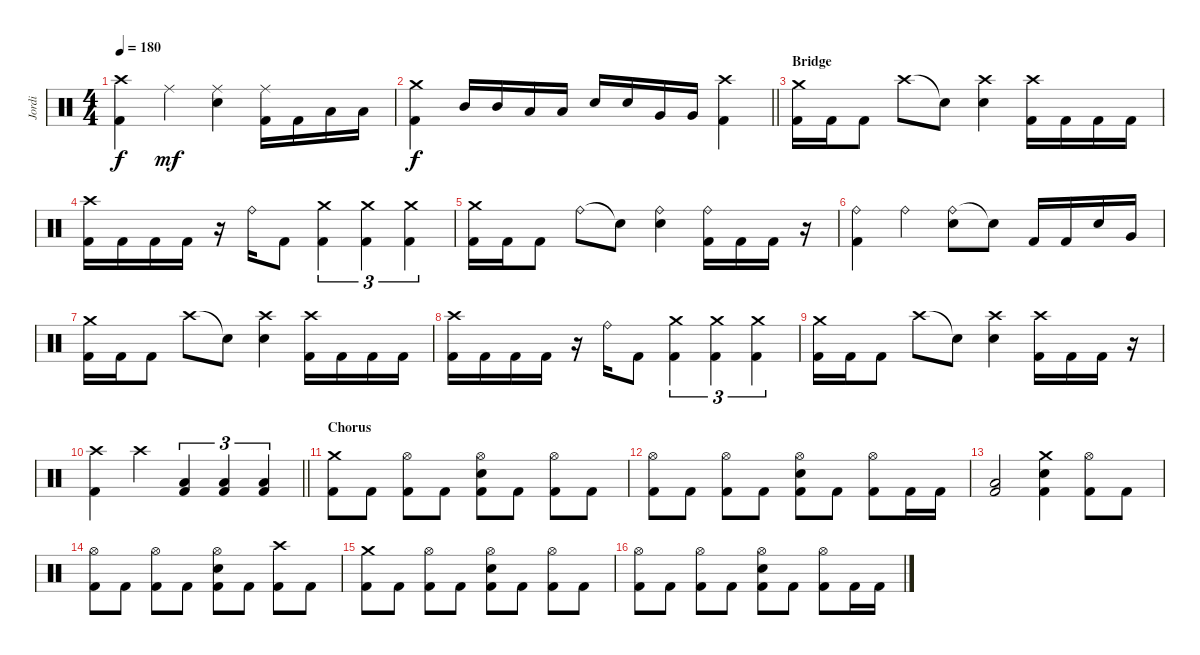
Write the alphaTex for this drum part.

\track ("Jordi" "Jordi") {instrument percussion}
\staff {score}
\articulation defaults
\ts (4 4)
\tempo 180
\clef neutral
\ks c
("Crash high (hit)" "Kick (hit) 2").4{dy f} "Ride (middle)".4{dy mf} ("Ride (middle)" "Snare (hit) 2").4 ("Ride (middle)" "Kick (hit) 2").16 "Kick (hit) 2".16 "Low Tom (hit)".16 "Low Tom (hit)".16 |
\barLineRight lightlight
("Crash medium (hit)" "Kick (hit) 2").4{dy f} "Mid Tom (hit)".16 "Mid Tom (hit)".16 "Low Tom (hit)".16 "Low Tom (hit)".16 "Snare (hit) 2".16 "Snare (hit) 2".16 "Very Low Tom (hit)".16 "Very Low Tom (hit)".16 ("Crash high (hit)" "Kick (hit) 2").4 |
\section ("" "Bridge")
("Crash medium (hit)" "Kick (hit) 2").16 "Kick (hit) 2".16 "Kick (hit) 2".8 "Crash high (hit)".8 "Snare (hit)"{t}.8 ("Crash high (hit)" "Snare (hit) 2").4 ("Crash high (hit)" "Kick (hit) 2").16 "Kick (hit) 2".16 "Kick (hit) 2".16 "Kick (hit) 2".16 |
("Crash high (hit)" "Kick (hit) 2").16 "Kick (hit) 2".16 "Kick (hit) 2".16 "Kick (hit) 2".16 r.16 "Ride (bell)".16 "Kick (hit) 2".8 ("Crash medium (hit)" "Kick (hit) 2").4{tu (3 2)} ("Crash medium (hit)" "Kick (hit) 2").4{tu (3 2)} ("Crash medium (hit)" "Kick (hit) 2").4{tu (3 2)} |
("Crash medium (hit)" "Kick (hit) 2").16 "Kick (hit) 2".16 "Kick (hit) 2".8 "Ride (bell)".8 "Snare (hit)"{t}.8 ("Ride (bell)" "Snare (hit) 2").4 ("Ride (bell)" "Kick (hit) 2").16 "Kick (hit) 2".16 "Kick (hit) 2".16 r.16 |
("Ride (bell)" "Kick (hit) 2").4 "Ride (bell)".4 ("Ride (bell)" "Snare (hit) 2").8 "Snare (hit)"{t}.8 "Kick (hit) 2".16 "Kick (hit) 2".16 "Snare (hit) 2".16 "Very Low Tom (hit)".16 |
("Crash medium (hit)" "Kick (hit) 2").16 "Kick (hit) 2".16 "Kick (hit) 2".8 "Crash high (hit)".8 "Snare (hit)"{t}.8 ("Crash high (hit)" "Snare (hit) 2").4 ("Crash high (hit)" "Kick (hit) 2").16 "Kick (hit) 2".16 "Kick (hit) 2".16 "Kick (hit) 2".16 |
("Crash high (hit)" "Kick (hit) 2").16 "Kick (hit) 2".16 "Kick (hit) 2".16 "Kick (hit) 2".16 r.16 "Ride (bell)".16 "Kick (hit) 2".8 ("Crash medium (hit)" "Kick (hit) 2").4{tu (3 2)} ("Crash medium (hit)" "Kick (hit) 2").4{tu (3 2)} ("Crash medium (hit)" "Kick (hit) 2").4{tu (3 2)} |
("Crash medium (hit)" "Kick (hit) 2").16 "Kick (hit) 2".16 "Kick (hit) 2".8 "Crash high (hit)".8 "Snare (hit)"{t}.8 ("Crash high (hit)" "Snare (hit) 2").4 ("Crash high (hit)" "Kick (hit) 2").16 "Kick (hit) 2".16 "Kick (hit) 2".16 r.16 |
\barLineRight lightlight
("Crash high (hit)" "Kick (hit) 2").4 "Crash high (hit)".4 ("Low Floor Tom (hit)" "Kick (hit) 2").4{tu (3 2)} ("Low Floor Tom (hit)" "Kick (hit) 2").4{tu (3 2)} ("Low Floor Tom (hit)" "Kick (hit) 2").4{tu (3 2)} |
\section ("" "Chorus")
("Crash medium (hit)" "Kick (hit) 2").8 "Kick (hit) 2".8 ("Hi-Hat (open)" "Kick (hit) 2").8 "Kick (hit) 2".8 ("Hi-Hat (open)" "Snare (hit) 2" "Kick (hit) 2").8 "Kick (hit) 2".8 ("Hi-Hat (open)" "Kick (hit) 2").8 "Kick (hit) 2".8 |
("Hi-Hat (open)" "Kick (hit) 2").8 "Kick (hit) 2".8 ("Hi-Hat (open)" "Kick (hit) 2").8 "Kick (hit) 2".8 ("Hi-Hat (open)" "Snare (hit) 2" "Kick (hit) 2").8 "Kick (hit) 2".8 ("Hi-Hat (open)" "Kick (hit) 2").8 "Kick (hit) 2".16 "Kick (hit) 2".16 |
("Low Tom (hit)" "Kick (hit) 2").2 ("Crash medium (hit)" "Snare (hit) 2" "Kick (hit) 2").4 ("Hi-Hat (open)" "Kick (hit) 2").8 "Kick (hit) 2".8 |
("Hi-Hat (open)" "Kick (hit) 2").8 "Kick (hit) 2".8 ("Hi-Hat (open)" "Kick (hit) 2").8 "Kick (hit) 2".8 ("Hi-Hat (open)" "Snare (hit) 2" "Kick (hit) 2").8 "Kick (hit) 2".8 ("Crash high (hit)" "Kick (hit) 2").8 "Kick (hit) 2".8 |
("Crash medium (hit)" "Kick (hit) 2").8 "Kick (hit) 2".8 ("Hi-Hat (open)" "Kick (hit) 2").8 "Kick (hit) 2".8 ("Hi-Hat (open)" "Snare (hit) 2" "Kick (hit) 2").8 "Kick (hit) 2".8 ("Hi-Hat (open)" "Kick (hit) 2").8 "Kick (hit) 2".8 |
("Hi-Hat (open)" "Kick (hit) 2").8 "Kick (hit) 2".8 ("Hi-Hat (open)" "Kick (hit) 2").8 "Kick (hit) 2".8 ("Hi-Hat (open)" "Snare (hit) 2" "Kick (hit) 2").8 "Kick (hit) 2".8 ("Hi-Hat (open)" "Kick (hit) 2").8 "Kick (hit) 2".16 "Kick (hit) 2".16
